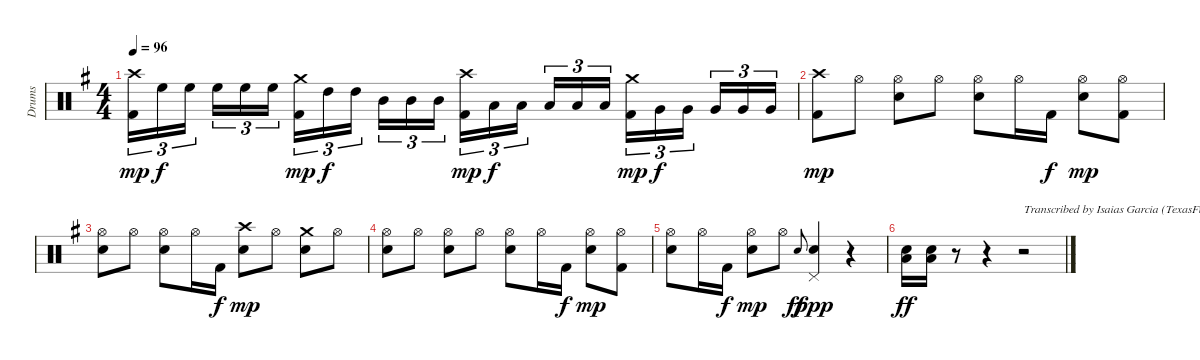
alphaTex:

\track ("Drums" "Drums") {instrument percussion}
\staff {score}
\articulation defaults
\ts (4 4)
\tempo 96
\clef neutral
\ks g
("Kick (hit) 2" "Crash high (hit)").16{tu (3 2) dy mp} "High Floor Tom (hit)".16{tu (3 2) dy f} "High Floor Tom (hit)".16{tu (3 2) beam splitsecondary} "High Floor Tom (hit)".16{tu (3 2)} "High Floor Tom (hit)".16{tu (3 2)} "High Floor Tom (hit)".16{tu (3 2)} ("Kick (hit) 2" "Crash medium (hit)").16{tu (3 2) dy mp} "High Tom (hit)".16{tu (3 2) dy f} "High Tom (hit)".16{tu (3 2) beam splitsecondary} "Mid Tom (hit)".16{tu (3 2)} "Mid Tom (hit)".16{tu (3 2)} "Mid Tom (hit)".16{tu (3 2)} ("Kick (hit) 2" "Crash high (hit)").16{tu (3 2) dy mp} "Low Tom (hit)".16{tu (3 2) dy f} "Low Tom (hit)".16{tu (3 2) beam splitsecondary} "Low Tom (hit)".16{tu (3 2)} "Low Tom (hit)".16{tu (3 2)} "Low Tom (hit)".16{tu (3 2)} ("Kick (hit) 2" "Crash medium (hit)").16{tu (3 2) dy mp} "Very Low Tom (hit)".16{tu (3 2) dy f} "Very Low Tom (hit)".16{tu (3 2) beam splitsecondary} "Very Low Tom (hit)".16{tu (3 2)} "Very Low Tom (hit)".16{tu (3 2)} "Very Low Tom (hit)".16{tu (3 2)} |
("Kick (hit) 2" "Crash high (hit)").8{dy mp} "Hi-Hat (open)".8 ("Hi-Hat (open)" "Electric Snare (hit)").8 "Hi-Hat (open)".8 ("Hi-Hat (open)" "Electric Snare (hit)").8 "Hi-Hat (open)".16 "Kick (hit) 2".16{dy f} ("Hi-Hat (open)" "Electric Snare (hit)").8{dy mp} ("Hi-Hat (open)" "Kick (hit) 2").8 |
("Hi-Hat (open)" "Electric Snare (hit)").8 "Hi-Hat (open)".8 ("Electric Snare (hit)" "Hi-Hat (open)").8 "Hi-Hat (open)".16 "Kick (hit) 2".16{dy f} ("Crash high (hit)" "Electric Snare (hit)").8{dy mp} "Hi-Hat (open)".8 ("Crash medium (hit)" "Electric Snare (hit)").8 "Hi-Hat (open)".8 |
("Hi-Hat (open)" "Electric Snare (hit)").8 "Hi-Hat (open)".8 ("Hi-Hat (open)" "Electric Snare (hit)").8 "Hi-Hat (open)".8 ("Hi-Hat (open)" "Electric Snare (hit)").8 "Hi-Hat (open)".16 "Kick (hit) 2".16{dy f} ("Hi-Hat (open)" "Electric Snare (hit)").8{dy mp} ("Hi-Hat (open)" "Kick (hit) 2").8 |
("Hi-Hat (open)" "Electric Snare (hit)").8 "Hi-Hat (open)".16 "Kick (hit) 2".16{dy f} ("Hi-Hat (open)" "Electric Snare (hit)").8{dy mp} "Hi-Hat (open)".8 "Electric Snare (hit)".8{gr onbeat dy ff} ("Electric Snare (hit)" "Pedal Hi-Hat (hit)").4{dy ppp} r.4 |
("Electric Snare (hit)" "Low Tom (hit)").16{dy ff} ("Electric Snare (hit)" "Low Tom (hit)").16 r.8 r.4 r.2{txt "Transcribed by Isaias Garcia (TexasFury)"}
